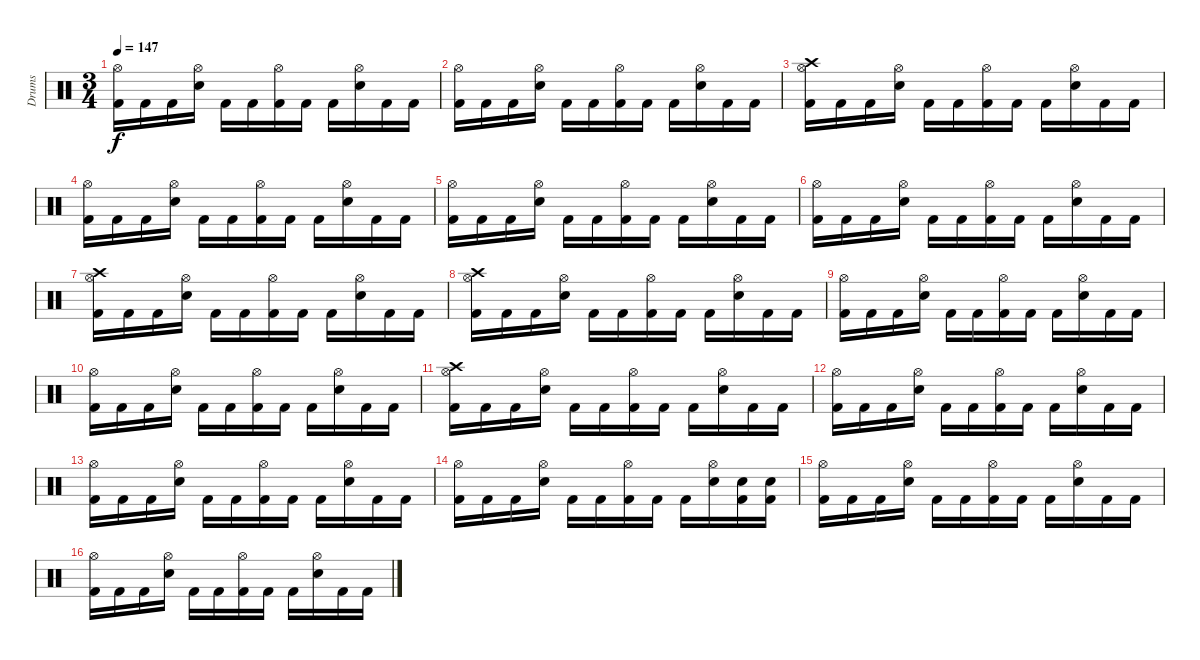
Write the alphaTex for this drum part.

\track ("Drums" "Drums") {instrument percussion}
\staff {score}
\articulation defaults
\ts (3 4)
\tempo 147
\clef neutral
\ks c
("Kick (hit) 2" "Hi-Hat (open)").16{dy f} "Kick (hit) 2".16 "Kick (hit) 2".16 ("Snare (hit) 2" "Hi-Hat (open)").16 "Kick (hit) 2".16 "Kick (hit) 2".16 ("Kick (hit) 2" "Hi-Hat (open)").16 "Kick (hit) 2".16 "Kick (hit) 2".16 ("Snare (hit) 2" "Hi-Hat (open)").16 "Kick (hit) 2".16 "Kick (hit) 2".16 |
("Kick (hit) 2" "Hi-Hat (open)").16 "Kick (hit) 2".16 "Kick (hit) 2".16 ("Snare (hit) 2" "Hi-Hat (open)").16 "Kick (hit) 2".16 "Kick (hit) 2".16 ("Kick (hit) 2" "Hi-Hat (open)").16 "Kick (hit) 2".16 "Kick (hit) 2".16 ("Snare (hit) 2" "Hi-Hat (open)").16 "Kick (hit) 2".16 "Kick (hit) 2".16 |
("Kick (hit) 2" "Crash high (hit)" "Hi-Hat (open)").16 "Kick (hit) 2".16 "Kick (hit) 2".16 ("Snare (hit) 2" "Hi-Hat (open)").16 "Kick (hit) 2".16 "Kick (hit) 2".16 ("Kick (hit) 2" "Hi-Hat (open)").16 "Kick (hit) 2".16 "Kick (hit) 2".16 ("Snare (hit) 2" "Hi-Hat (open)").16 "Kick (hit) 2".16 "Kick (hit) 2".16 |
("Kick (hit) 2" "Hi-Hat (open)").16 "Kick (hit) 2".16 "Kick (hit) 2".16 ("Snare (hit) 2" "Hi-Hat (open)").16 "Kick (hit) 2".16 "Kick (hit) 2".16 ("Kick (hit) 2" "Hi-Hat (open)").16 "Kick (hit) 2".16 "Kick (hit) 2".16 ("Snare (hit) 2" "Hi-Hat (open)").16 "Kick (hit) 2".16 "Kick (hit) 2".16 |
("Kick (hit) 2" "Hi-Hat (open)").16 "Kick (hit) 2".16 "Kick (hit) 2".16 ("Snare (hit) 2" "Hi-Hat (open)").16 "Kick (hit) 2".16 "Kick (hit) 2".16 ("Kick (hit) 2" "Hi-Hat (open)").16 "Kick (hit) 2".16 "Kick (hit) 2".16 ("Snare (hit) 2" "Hi-Hat (open)").16 "Kick (hit) 2".16 "Kick (hit) 2".16 |
("Kick (hit) 2" "Hi-Hat (open)").16 "Kick (hit) 2".16 "Kick (hit) 2".16 ("Snare (hit) 2" "Hi-Hat (open)").16 "Kick (hit) 2".16 "Kick (hit) 2".16 ("Kick (hit) 2" "Hi-Hat (open)").16 "Kick (hit) 2".16 "Kick (hit) 2".16 ("Snare (hit) 2" "Hi-Hat (open)").16 "Kick (hit) 2".16 "Kick (hit) 2".16 |
("Kick (hit) 2" "Crash high (hit)" "Hi-Hat (open)").16 "Kick (hit) 2".16 "Kick (hit) 2".16 ("Snare (hit) 2" "Hi-Hat (open)").16 "Kick (hit) 2".16 "Kick (hit) 2".16 ("Kick (hit) 2" "Hi-Hat (open)").16 "Kick (hit) 2".16 "Kick (hit) 2".16 ("Snare (hit) 2" "Hi-Hat (open)").16 "Kick (hit) 2".16 "Kick (hit) 2".16 |
("Kick (hit) 2" "Crash high (hit)" "Hi-Hat (open)").16 "Kick (hit) 2".16 "Kick (hit) 2".16 ("Snare (hit) 2" "Hi-Hat (open)").16 "Kick (hit) 2".16 "Kick (hit) 2".16 ("Kick (hit) 2" "Hi-Hat (open)").16 "Kick (hit) 2".16 "Kick (hit) 2".16 ("Snare (hit) 2" "Hi-Hat (open)").16 "Kick (hit) 2".16 "Kick (hit) 2".16 |
("Kick (hit) 2" "Hi-Hat (open)").16 "Kick (hit) 2".16 "Kick (hit) 2".16 ("Snare (hit) 2" "Hi-Hat (open)").16 "Kick (hit) 2".16 "Kick (hit) 2".16 ("Kick (hit) 2" "Hi-Hat (open)").16 "Kick (hit) 2".16 "Kick (hit) 2".16 ("Snare (hit) 2" "Hi-Hat (open)").16 "Kick (hit) 2".16 "Kick (hit) 2".16 |
("Kick (hit) 2" "Hi-Hat (open)").16 "Kick (hit) 2".16 "Kick (hit) 2".16 ("Snare (hit) 2" "Hi-Hat (open)").16 "Kick (hit) 2".16 "Kick (hit) 2".16 ("Kick (hit) 2" "Hi-Hat (open)").16 "Kick (hit) 2".16 "Kick (hit) 2".16 ("Snare (hit) 2" "Hi-Hat (open)").16 "Kick (hit) 2".16 "Kick (hit) 2".16 |
("Kick (hit) 2" "Crash high (hit)" "Hi-Hat (open)").16 "Kick (hit) 2".16 "Kick (hit) 2".16 ("Snare (hit) 2" "Hi-Hat (open)").16 "Kick (hit) 2".16 "Kick (hit) 2".16 ("Kick (hit) 2" "Hi-Hat (open)").16 "Kick (hit) 2".16 "Kick (hit) 2".16 ("Snare (hit) 2" "Hi-Hat (open)").16 "Kick (hit) 2".16 "Kick (hit) 2".16 |
("Kick (hit) 2" "Hi-Hat (open)").16 "Kick (hit) 2".16 "Kick (hit) 2".16 ("Snare (hit) 2" "Hi-Hat (open)").16 "Kick (hit) 2".16 "Kick (hit) 2".16 ("Kick (hit) 2" "Hi-Hat (open)").16 "Kick (hit) 2".16 "Kick (hit) 2".16 ("Snare (hit) 2" "Hi-Hat (open)").16 "Kick (hit) 2".16 "Kick (hit) 2".16 |
("Kick (hit) 2" "Hi-Hat (open)").16 "Kick (hit) 2".16 "Kick (hit) 2".16 ("Snare (hit) 2" "Hi-Hat (open)").16 "Kick (hit) 2".16 "Kick (hit) 2".16 ("Kick (hit) 2" "Hi-Hat (open)").16 "Kick (hit) 2".16 "Kick (hit) 2".16 ("Snare (hit) 2" "Hi-Hat (open)").16 "Kick (hit) 2".16 "Kick (hit) 2".16 |
("Kick (hit) 2" "Hi-Hat (open)").16 "Kick (hit) 2".16 "Kick (hit) 2".16 ("Snare (hit) 2" "Hi-Hat (open)").16 "Kick (hit) 2".16 "Kick (hit) 2".16 ("Kick (hit) 2" "Hi-Hat (open)").16 "Kick (hit) 2".16 "Kick (hit) 2".16 ("Snare (hit) 2" "Hi-Hat (open)").16 ("Kick (hit) 2" "Snare (hit) 2").16 ("Kick (hit) 2" "Snare (hit) 2").16 |
("Kick (hit) 2" "Hi-Hat (open)").16 "Kick (hit) 2".16 "Kick (hit) 2".16 ("Snare (hit) 2" "Hi-Hat (open)").16 "Kick (hit) 2".16 "Kick (hit) 2".16 ("Kick (hit) 2" "Hi-Hat (open)").16 "Kick (hit) 2".16 "Kick (hit) 2".16 ("Snare (hit) 2" "Hi-Hat (open)").16 "Kick (hit) 2".16 "Kick (hit) 2".16 |
("Kick (hit) 2" "Hi-Hat (open)").16 "Kick (hit) 2".16 "Kick (hit) 2".16 ("Snare (hit) 2" "Hi-Hat (open)").16 "Kick (hit) 2".16 "Kick (hit) 2".16 ("Kick (hit) 2" "Hi-Hat (open)").16 "Kick (hit) 2".16 "Kick (hit) 2".16 ("Snare (hit) 2" "Hi-Hat (open)").16 "Kick (hit) 2".16 "Kick (hit) 2".16
